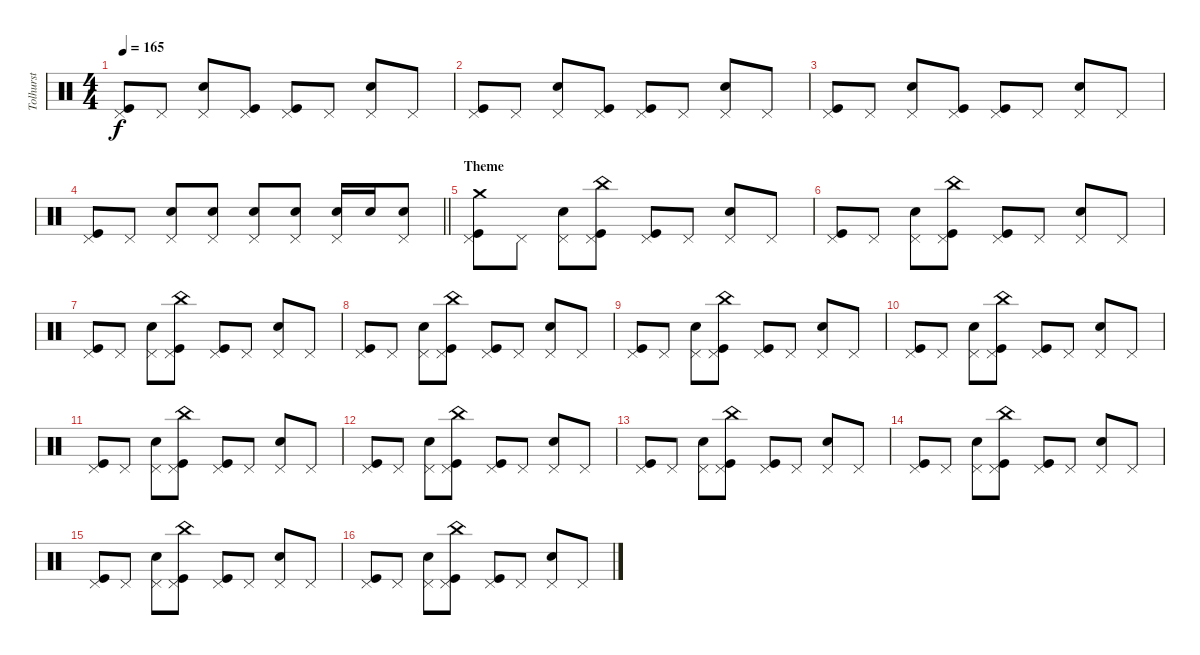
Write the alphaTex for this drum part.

\track ("Tolhurst" "Tolhurst") {instrument percussion}
\staff {score}
\articulation defaults
\ts (4 4)
\tempo 165
\clef neutral
\ks c
("Pedal Hi-Hat (hit)" "Kick (hit)").8{dy f} "Pedal Hi-Hat (hit)".8 ("Pedal Hi-Hat (hit)" "Snare (hit) 2").8 ("Pedal Hi-Hat (hit)" "Kick (hit)").8 ("Pedal Hi-Hat (hit)" "Kick (hit)").8 "Pedal Hi-Hat (hit)".8 ("Pedal Hi-Hat (hit)" "Snare (hit) 2").8 "Pedal Hi-Hat (hit)".8 |
("Pedal Hi-Hat (hit)" "Kick (hit)").8 "Pedal Hi-Hat (hit)".8 ("Pedal Hi-Hat (hit)" "Snare (hit) 2").8 ("Pedal Hi-Hat (hit)" "Kick (hit)").8 ("Pedal Hi-Hat (hit)" "Kick (hit)").8 "Pedal Hi-Hat (hit)".8 ("Pedal Hi-Hat (hit)" "Snare (hit) 2").8 "Pedal Hi-Hat (hit)".8 |
("Pedal Hi-Hat (hit)" "Kick (hit)").8 "Pedal Hi-Hat (hit)".8 ("Pedal Hi-Hat (hit)" "Snare (hit) 2").8 ("Pedal Hi-Hat (hit)" "Kick (hit)").8 ("Pedal Hi-Hat (hit)" "Kick (hit)").8 "Pedal Hi-Hat (hit)".8 ("Pedal Hi-Hat (hit)" "Snare (hit) 2").8 "Pedal Hi-Hat (hit)".8 |
\barLineRight lightlight
("Pedal Hi-Hat (hit)" "Kick (hit)").8 "Pedal Hi-Hat (hit)".8 ("Pedal Hi-Hat (hit)" "Snare (hit) 2").8 ("Pedal Hi-Hat (hit)" "Snare (hit) 2").8 ("Pedal Hi-Hat (hit)" "Snare (hit) 2").8 ("Pedal Hi-Hat (hit)" "Snare (hit) 2").8 ("Pedal Hi-Hat (hit)" "Snare (hit) 2").16 "Snare (hit) 2".16 ("Pedal Hi-Hat (hit)" "Snare (hit) 2").8 |
\section ("" "Theme")
("Crash medium (hit)" "Pedal Hi-Hat (hit)" "Kick (hit)").8 "Pedal Hi-Hat (hit)".8 ("Pedal Hi-Hat (hit)" "Snare (hit) 2").8 ("China (hit)" "Pedal Hi-Hat (hit)" "Kick (hit)").8 ("Pedal Hi-Hat (hit)" "Kick (hit)").8 "Pedal Hi-Hat (hit)".8 ("Pedal Hi-Hat (hit)" "Snare (hit) 2").8 "Pedal Hi-Hat (hit)".8 |
("Pedal Hi-Hat (hit)" "Kick (hit)").8 "Pedal Hi-Hat (hit)".8 ("Pedal Hi-Hat (hit)" "Snare (hit) 2").8 ("China (hit)" "Pedal Hi-Hat (hit)" "Kick (hit)").8 ("Pedal Hi-Hat (hit)" "Kick (hit)").8 "Pedal Hi-Hat (hit)".8 ("Pedal Hi-Hat (hit)" "Snare (hit) 2").8 "Pedal Hi-Hat (hit)".8 |
("Pedal Hi-Hat (hit)" "Kick (hit)").8 "Pedal Hi-Hat (hit)".8 ("Pedal Hi-Hat (hit)" "Snare (hit) 2").8 ("China (hit)" "Pedal Hi-Hat (hit)" "Kick (hit)").8 ("Pedal Hi-Hat (hit)" "Kick (hit)").8 "Pedal Hi-Hat (hit)".8 ("Pedal Hi-Hat (hit)" "Snare (hit) 2").8 "Pedal Hi-Hat (hit)".8 |
("Pedal Hi-Hat (hit)" "Kick (hit)").8 "Pedal Hi-Hat (hit)".8 ("Pedal Hi-Hat (hit)" "Snare (hit) 2").8 ("China (hit)" "Pedal Hi-Hat (hit)" "Kick (hit)").8 ("Pedal Hi-Hat (hit)" "Kick (hit)").8 "Pedal Hi-Hat (hit)".8 ("Pedal Hi-Hat (hit)" "Snare (hit) 2").8 "Pedal Hi-Hat (hit)".8 |
("Pedal Hi-Hat (hit)" "Kick (hit)").8 "Pedal Hi-Hat (hit)".8 ("Pedal Hi-Hat (hit)" "Snare (hit) 2").8 ("China (hit)" "Pedal Hi-Hat (hit)" "Kick (hit)").8 ("Pedal Hi-Hat (hit)" "Kick (hit)").8 "Pedal Hi-Hat (hit)".8 ("Pedal Hi-Hat (hit)" "Snare (hit) 2").8 "Pedal Hi-Hat (hit)".8 |
("Pedal Hi-Hat (hit)" "Kick (hit)").8 "Pedal Hi-Hat (hit)".8 ("Pedal Hi-Hat (hit)" "Snare (hit) 2").8 ("China (hit)" "Pedal Hi-Hat (hit)" "Kick (hit)").8 ("Pedal Hi-Hat (hit)" "Kick (hit)").8 "Pedal Hi-Hat (hit)".8 ("Pedal Hi-Hat (hit)" "Snare (hit) 2").8 "Pedal Hi-Hat (hit)".8 |
("Pedal Hi-Hat (hit)" "Kick (hit)").8 "Pedal Hi-Hat (hit)".8 ("Pedal Hi-Hat (hit)" "Snare (hit) 2").8 ("China (hit)" "Pedal Hi-Hat (hit)" "Kick (hit)").8 ("Pedal Hi-Hat (hit)" "Kick (hit)").8 "Pedal Hi-Hat (hit)".8 ("Pedal Hi-Hat (hit)" "Snare (hit) 2").8 "Pedal Hi-Hat (hit)".8 |
("Pedal Hi-Hat (hit)" "Kick (hit)").8 "Pedal Hi-Hat (hit)".8 ("Pedal Hi-Hat (hit)" "Snare (hit) 2").8 ("China (hit)" "Pedal Hi-Hat (hit)" "Kick (hit)").8 ("Pedal Hi-Hat (hit)" "Kick (hit)").8 "Pedal Hi-Hat (hit)".8 ("Pedal Hi-Hat (hit)" "Snare (hit) 2").8 "Pedal Hi-Hat (hit)".8 |
("Pedal Hi-Hat (hit)" "Kick (hit)").8 "Pedal Hi-Hat (hit)".8 ("Pedal Hi-Hat (hit)" "Snare (hit) 2").8 ("China (hit)" "Pedal Hi-Hat (hit)" "Kick (hit)").8 ("Pedal Hi-Hat (hit)" "Kick (hit)").8 "Pedal Hi-Hat (hit)".8 ("Pedal Hi-Hat (hit)" "Snare (hit) 2").8 "Pedal Hi-Hat (hit)".8 |
("Pedal Hi-Hat (hit)" "Kick (hit)").8 "Pedal Hi-Hat (hit)".8 ("Pedal Hi-Hat (hit)" "Snare (hit) 2").8 ("China (hit)" "Pedal Hi-Hat (hit)" "Kick (hit)").8 ("Pedal Hi-Hat (hit)" "Kick (hit)").8 "Pedal Hi-Hat (hit)".8 ("Pedal Hi-Hat (hit)" "Snare (hit) 2").8 "Pedal Hi-Hat (hit)".8 |
("Pedal Hi-Hat (hit)" "Kick (hit)").8 "Pedal Hi-Hat (hit)".8 ("Pedal Hi-Hat (hit)" "Snare (hit) 2").8 ("China (hit)" "Pedal Hi-Hat (hit)" "Kick (hit)").8 ("Pedal Hi-Hat (hit)" "Kick (hit)").8 "Pedal Hi-Hat (hit)".8 ("Pedal Hi-Hat (hit)" "Snare (hit) 2").8 "Pedal Hi-Hat (hit)".8 |
("Pedal Hi-Hat (hit)" "Kick (hit)").8 "Pedal Hi-Hat (hit)".8 ("Pedal Hi-Hat (hit)" "Snare (hit) 2").8 ("China (hit)" "Pedal Hi-Hat (hit)" "Kick (hit)").8 ("Pedal Hi-Hat (hit)" "Kick (hit)").8 "Pedal Hi-Hat (hit)".8 ("Pedal Hi-Hat (hit)" "Snare (hit) 2").8 "Pedal Hi-Hat (hit)".8
